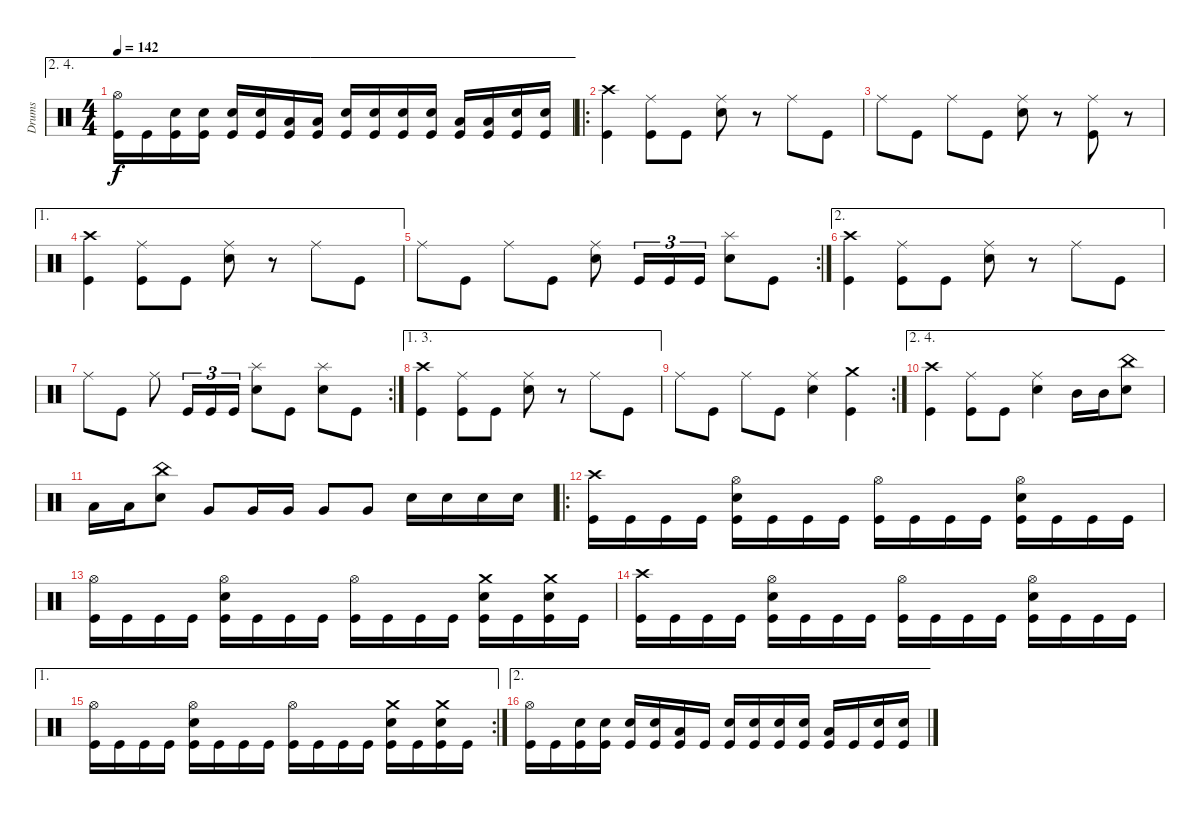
\track ("Drums" "Drums") {instrument percussion}
\staff {score}
\articulation defaults
\ae (2 4)
\ts (4 4)
\tempo 142
\clef neutral
\ks c
("Hi-Hat (open)" "Kick (hit)").16{dy f} "Kick (hit)".16 ("Electric Snare (hit)" "Kick (hit)").16 ("Electric Snare (hit)" "Kick (hit)").16 ("Electric Snare (hit)" "Kick (hit)").16 ("Electric Snare (hit)" "Kick (hit)").16 ("Low Tom (hit)" "Kick (hit)").16 ("Low Tom (hit)" "Kick (hit)").16 ("Electric Snare (hit)" "Kick (hit)").16 ("Electric Snare (hit)" "Kick (hit)").16 ("Electric Snare (hit)" "Kick (hit)").16 ("Electric Snare (hit)" "Kick (hit)").16 ("Low Tom (hit)" "Kick (hit)").16 ("Low Tom (hit)" "Kick (hit)").16 ("Electric Snare (hit)" "Kick (hit)").16 ("Electric Snare (hit)" "Kick (hit)").16 |
\ro
("Crash high (hit)" "Kick (hit)").4 ("Ride (middle)" "Kick (hit)").8 "Kick (hit)".8 ("Ride (middle)" "Electric Snare (hit)").8 r.8 "Ride (middle)".8 "Kick (hit)".8 |
"Ride (middle)".8 "Kick (hit)".8 "Ride (middle)".8 "Kick (hit)".8 ("Ride (middle)" "Electric Snare (hit)").8 r.8 ("Ride (middle)" "Kick (hit)").8 r.8 |
\ae 1
("Crash high (hit)" "Kick (hit)").4 ("Ride (middle)" "Kick (hit)").8 "Kick (hit)".8 ("Ride (middle)" "Electric Snare (hit)").8 r.8 "Ride (middle)".8 "Kick (hit)".8 |
\rc 2 "Ride (middle)".8 "Kick (hit)".8 "Ride (middle)".8 "Kick (hit)".8
("Ride (middle)" "Electric Snare (hit)").8 "Kick (hit)".16{tu (3 2)} "Kick (hit)".16{tu (3 2)} "Kick (hit)".16{tu (3 2)} ("Splash (hit)" "Electric Snare (hit)").8 "Kick (hit)".8 |
\ae 2
("Crash high (hit)" "Kick (hit)").4 ("Ride (middle)" "Kick (hit)").8 "Kick (hit)".8 ("Ride (middle)" "Electric Snare (hit)").8 r.8 "Ride (middle)".8 "Kick (hit)".8 |
\rc 2 "Ride (middle)".8 "Kick (hit)".8 "Ride (middle)".8 "Kick (hit)".16{tu (3 2)} "Kick (hit)".16{tu (3 2)} "Kick (hit)".16{tu (3 2)}
("Splash (hit)" "Electric Snare (hit)").8 "Kick (hit)".8 ("Splash (hit)" "Electric Snare (hit)").8 "Kick (hit)".8 |
\ae (1 3)
("Crash high (hit)" "Kick (hit)").4 ("Ride (middle)" "Kick (hit)").8 "Kick (hit)".8 ("Ride (middle)" "Electric Snare (hit)").8 r.8 "Ride (middle)".8 "Kick (hit)".8 |
\rc 2 "Ride (middle)".8 "Kick (hit)".8 "Ride (middle)".8 "Kick (hit)".8
("Ride (middle)" "Electric Snare (hit)").4 ("Crash medium (hit)" "Kick (hit)").4 |
\ae (2 4)
("Crash high (hit)" "Kick (hit)").4 ("Ride (middle)" "Kick (hit)").8 "Kick (hit)".8 ("Ride (middle)" "Electric Snare (hit)").4 "Mid Tom (hit)".16 "Mid Tom (hit)".16 ("China (hit)" "Electric Snare (hit)").8 |
"Low Tom (hit)".16 "Low Tom (hit)".16 ("China (hit)" "Electric Snare (hit)").8 "Very Low Tom (hit)".8 "Very Low Tom (hit)".16 "Very Low Tom (hit)".16 "Very Low Tom (hit)".8 "Very Low Tom (hit)".8 "Electric Snare (hit)".16 "Electric Snare (hit)".16 "Electric Snare (hit)".16 "Electric Snare (hit)".16 |
\ro
("Crash high (hit)" "Kick (hit)").16 "Kick (hit)".16 "Kick (hit)".16 "Kick (hit)".16 ("Hi-Hat (open)" "Electric Snare (hit)" "Kick (hit)").16 "Kick (hit)".16 "Kick (hit)".16 "Kick (hit)".16 ("Hi-Hat (open)" "Kick (hit)").16 "Kick (hit)".16 "Kick (hit)".16 "Kick (hit)".16 ("Hi-Hat (open)" "Electric Snare (hit)" "Kick (hit)").16 "Kick (hit)".16 "Kick (hit)".16 "Kick (hit)".16 |
("Hi-Hat (open)" "Kick (hit)").16 "Kick (hit)".16 "Kick (hit)".16 "Kick (hit)".16 ("Hi-Hat (open)" "Electric Snare (hit)" "Kick (hit)").16 "Kick (hit)".16 "Kick (hit)".16 "Kick (hit)".16 ("Hi-Hat (open)" "Kick (hit)").16 "Kick (hit)".16 "Kick (hit)".16 "Kick (hit)".16 ("Crash medium (hit)" "Electric Snare (hit)" "Kick (hit)").16 "Kick (hit)".16 ("Crash medium (hit)" "Electric Snare (hit)" "Kick (hit)").16 "Kick (hit)".16 |
("Crash high (hit)" "Kick (hit)").16 "Kick (hit)".16 "Kick (hit)".16 "Kick (hit)".16 ("Hi-Hat (open)" "Electric Snare (hit)" "Kick (hit)").16 "Kick (hit)".16 "Kick (hit)".16 "Kick (hit)".16 ("Hi-Hat (open)" "Kick (hit)").16 "Kick (hit)".16 "Kick (hit)".16 "Kick (hit)".16 ("Hi-Hat (open)" "Electric Snare (hit)" "Kick (hit)").16 "Kick (hit)".16 "Kick (hit)".16 "Kick (hit)".16 |
\ae 1
\rc 2
("Hi-Hat (open)" "Kick (hit)").16 "Kick (hit)".16 "Kick (hit)".16 "Kick (hit)".16 ("Hi-Hat (open)" "Electric Snare (hit)" "Kick (hit)").16 "Kick (hit)".16 "Kick (hit)".16 "Kick (hit)".16 ("Hi-Hat (open)" "Kick (hit)").16 "Kick (hit)".16 "Kick (hit)".16 "Kick (hit)".16 ("Crash medium (hit)" "Electric Snare (hit)" "Kick (hit)").16 "Kick (hit)".16 ("Crash medium (hit)" "Electric Snare (hit)" "Kick (hit)").16 "Kick (hit)".16 |
\ae 2
("Hi-Hat (open)" "Kick (hit)").16 "Kick (hit)".16 ("Electric Snare (hit)" "Kick (hit)").16 ("Electric Snare (hit)" "Kick (hit)").16 ("Electric Snare (hit)" "Kick (hit)").16 ("Electric Snare (hit)" "Kick (hit)").16 ("Low Tom (hit)" "Kick (hit)").16 "Kick (hit)".16 ("Electric Snare (hit)" "Kick (hit)").16 ("Electric Snare (hit)" "Kick (hit)").16 ("Electric Snare (hit)" "Kick (hit)").16 ("Electric Snare (hit)" "Kick (hit)").16 ("Low Tom (hit)" "Kick (hit)").16 "Kick (hit)".16 ("Electric Snare (hit)" "Kick (hit)").16 ("Electric Snare (hit)" "Kick (hit)").16
